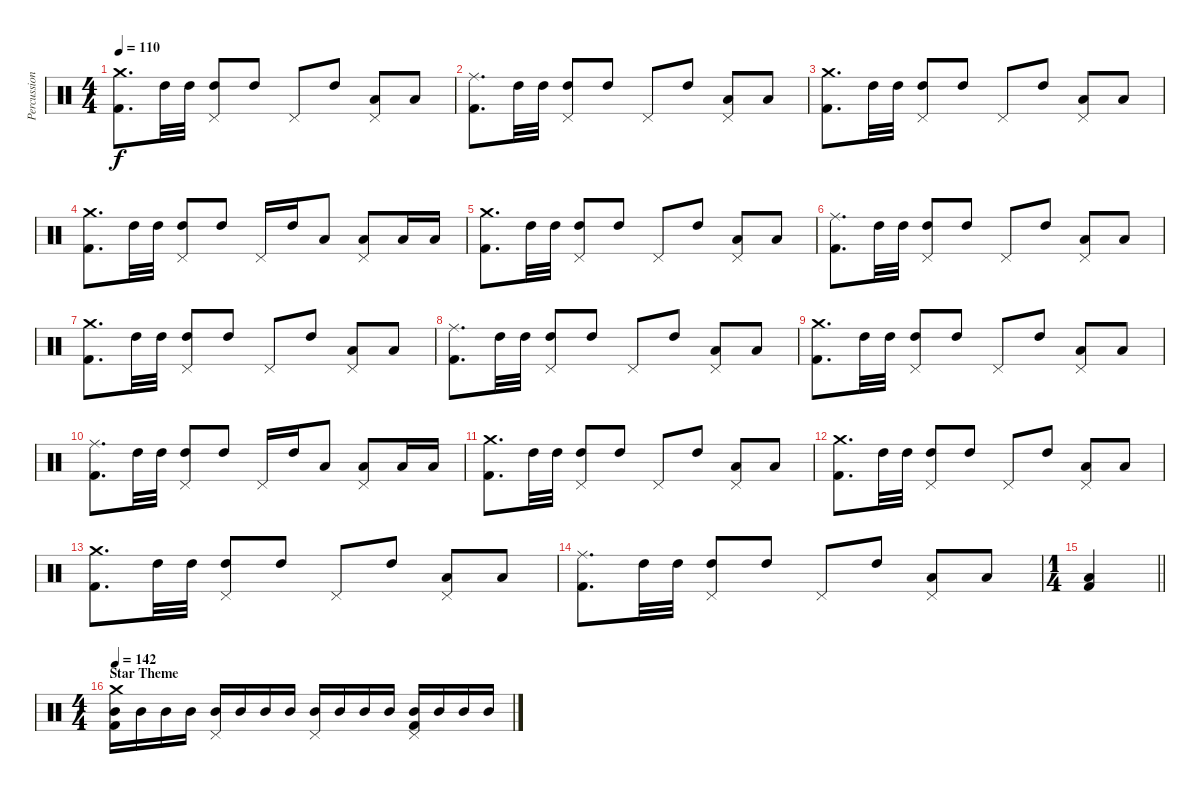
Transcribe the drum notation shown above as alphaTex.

\track ("Percussion" "Percussion") {instrument percussion}
\staff {score}
\articulation defaults
\ts (4 4)
\tempo 110
\clef neutral
\ks c
("Crash medium (hit)" "Kick (hit) 2").8{d dy f} "High Tom (hit)".32 "High Tom (hit)".32 ("Pedal Hi-Hat (hit)" "High Tom (hit)").8 "High Tom (hit)".8 "Pedal Hi-Hat (hit)".8 "High Tom (hit)".8 ("Pedal Hi-Hat (hit)" "Low Tom (hit)").8 "Low Tom (hit)".8 |
("Ride (middle)" "Kick (hit) 2").8{d} "High Tom (hit)".32 "High Tom (hit)".32 ("Pedal Hi-Hat (hit)" "High Tom (hit)").8 "High Tom (hit)".8 "Pedal Hi-Hat (hit)".8 "High Tom (hit)".8 ("Pedal Hi-Hat (hit)" "Low Tom (hit)").8 "Low Tom (hit)".8 |
("Crash medium (hit)" "Kick (hit) 2").8{d} "High Tom (hit)".32 "High Tom (hit)".32 ("Pedal Hi-Hat (hit)" "High Tom (hit)").8 "High Tom (hit)".8 "Pedal Hi-Hat (hit)".8 "High Tom (hit)".8 ("Pedal Hi-Hat (hit)" "Low Tom (hit)").8 "Low Tom (hit)".8 |
("Crash medium (hit)" "Kick (hit) 2").8{d} "High Tom (hit)".32 "High Tom (hit)".32 ("Pedal Hi-Hat (hit)" "High Tom (hit)").8 "High Tom (hit)".8 "Pedal Hi-Hat (hit)".16 "High Tom (hit)".16 "Low Tom (hit)".8 ("Pedal Hi-Hat (hit)" "Low Tom (hit)").8 "Low Floor Tom (hit)".16 "Low Floor Tom (hit)".16 |
("Crash medium (hit)" "Kick (hit) 2").8{d} "High Tom (hit)".32 "High Tom (hit)".32 ("Pedal Hi-Hat (hit)" "High Tom (hit)").8 "High Tom (hit)".8 "Pedal Hi-Hat (hit)".8 "High Tom (hit)".8 ("Pedal Hi-Hat (hit)" "Low Tom (hit)").8 "Low Tom (hit)".8 |
("Ride (middle)" "Kick (hit) 2").8{d} "High Tom (hit)".32 "High Tom (hit)".32 ("Pedal Hi-Hat (hit)" "High Tom (hit)").8 "High Tom (hit)".8 "Pedal Hi-Hat (hit)".8 "High Tom (hit)".8 ("Pedal Hi-Hat (hit)" "Low Tom (hit)").8 "Low Tom (hit)".8 |
("Crash medium (hit)" "Kick (hit) 2").8{d} "High Tom (hit)".32 "High Tom (hit)".32 ("Pedal Hi-Hat (hit)" "High Tom (hit)").8 "High Tom (hit)".8 "Pedal Hi-Hat (hit)".8 "High Tom (hit)".8 ("Pedal Hi-Hat (hit)" "Low Tom (hit)").8 "Low Tom (hit)".8 |
("Ride (middle)" "Kick (hit) 2").8{d} "High Tom (hit)".32 "High Tom (hit)".32 ("Pedal Hi-Hat (hit)" "High Tom (hit)").8 "High Tom (hit)".8 "Pedal Hi-Hat (hit)".8 "High Tom (hit)".8 ("Pedal Hi-Hat (hit)" "Low Tom (hit)").8 "Low Tom (hit)".8 |
("Crash medium (hit)" "Kick (hit) 2").8{d} "High Tom (hit)".32 "High Tom (hit)".32 ("Pedal Hi-Hat (hit)" "High Tom (hit)").8 "High Tom (hit)".8 "Pedal Hi-Hat (hit)".8 "High Tom (hit)".8 ("Pedal Hi-Hat (hit)" "Low Tom (hit)").8 "Low Tom (hit)".8 |
("Ride (middle)" "Kick (hit) 2").8{d} "High Tom (hit)".32 "High Tom (hit)".32 ("Pedal Hi-Hat (hit)" "High Tom (hit)").8 "High Tom (hit)".8 "Pedal Hi-Hat (hit)".16 "High Tom (hit)".16 "Low Tom (hit)".8 ("Pedal Hi-Hat (hit)" "Low Tom (hit)").8 "Low Floor Tom (hit)".16 "Low Floor Tom (hit)".16 |
("Crash medium (hit)" "Kick (hit) 2").8{d} "High Tom (hit)".32 "High Tom (hit)".32 ("Pedal Hi-Hat (hit)" "High Tom (hit)").8 "High Tom (hit)".8 "Pedal Hi-Hat (hit)".8 "High Tom (hit)".8 ("Pedal Hi-Hat (hit)" "Low Tom (hit)").8 "Low Tom (hit)".8 |
("Crash medium (hit)" "Kick (hit) 2").8{d} "High Tom (hit)".32 "High Tom (hit)".32 ("Pedal Hi-Hat (hit)" "High Tom (hit)").8 "High Tom (hit)".8 "Pedal Hi-Hat (hit)".8 "High Tom (hit)".8 ("Pedal Hi-Hat (hit)" "Low Tom (hit)").8 "Low Tom (hit)".8 |
("Crash medium (hit)" "Kick (hit) 2").8{d} "High Tom (hit)".32 "High Tom (hit)".32 ("Pedal Hi-Hat (hit)" "High Tom (hit)").8 "High Tom (hit)".8 "Pedal Hi-Hat (hit)".8 "High Tom (hit)".8 ("Pedal Hi-Hat (hit)" "Low Tom (hit)").8 "Low Tom (hit)".8 |
("Ride (middle)" "Kick (hit) 2").8{d} "High Tom (hit)".32 "High Tom (hit)".32 ("Pedal Hi-Hat (hit)" "High Tom (hit)").8 "High Tom (hit)".8 "Pedal Hi-Hat (hit)".8 "High Tom (hit)".8 ("Pedal Hi-Hat (hit)" "Low Tom (hit)").8 "Low Tom (hit)".8 |
\ts (1 4)
\barLineRight lightlight
("Low Floor Tom (hit)" "Kick (hit) 2").4 |
\ts (4 4)
\section ("" "Star Theme")
\tempo 142
("Crash medium (hit)" "Mid Tom (hit)" "Kick (hit) 2").16 "Mid Tom (hit)".16 "Mid Tom (hit)".16 "Mid Tom (hit)".16 ("Pedal Hi-Hat (hit)" "Mid Tom (hit)").16 "Mid Tom (hit)".16 "Mid Tom (hit)".16 "Mid Tom (hit)".16 ("Pedal Hi-Hat (hit)" "Mid Tom (hit)").16 "Mid Tom (hit)".16 "Mid Tom (hit)".16 "Mid Tom (hit)".16 ("Pedal Hi-Hat (hit)" "Mid Tom (hit)" "Kick (hit) 2").16 "Mid Tom (hit)".16 "Mid Tom (hit)".16 "Mid Tom (hit)".16
